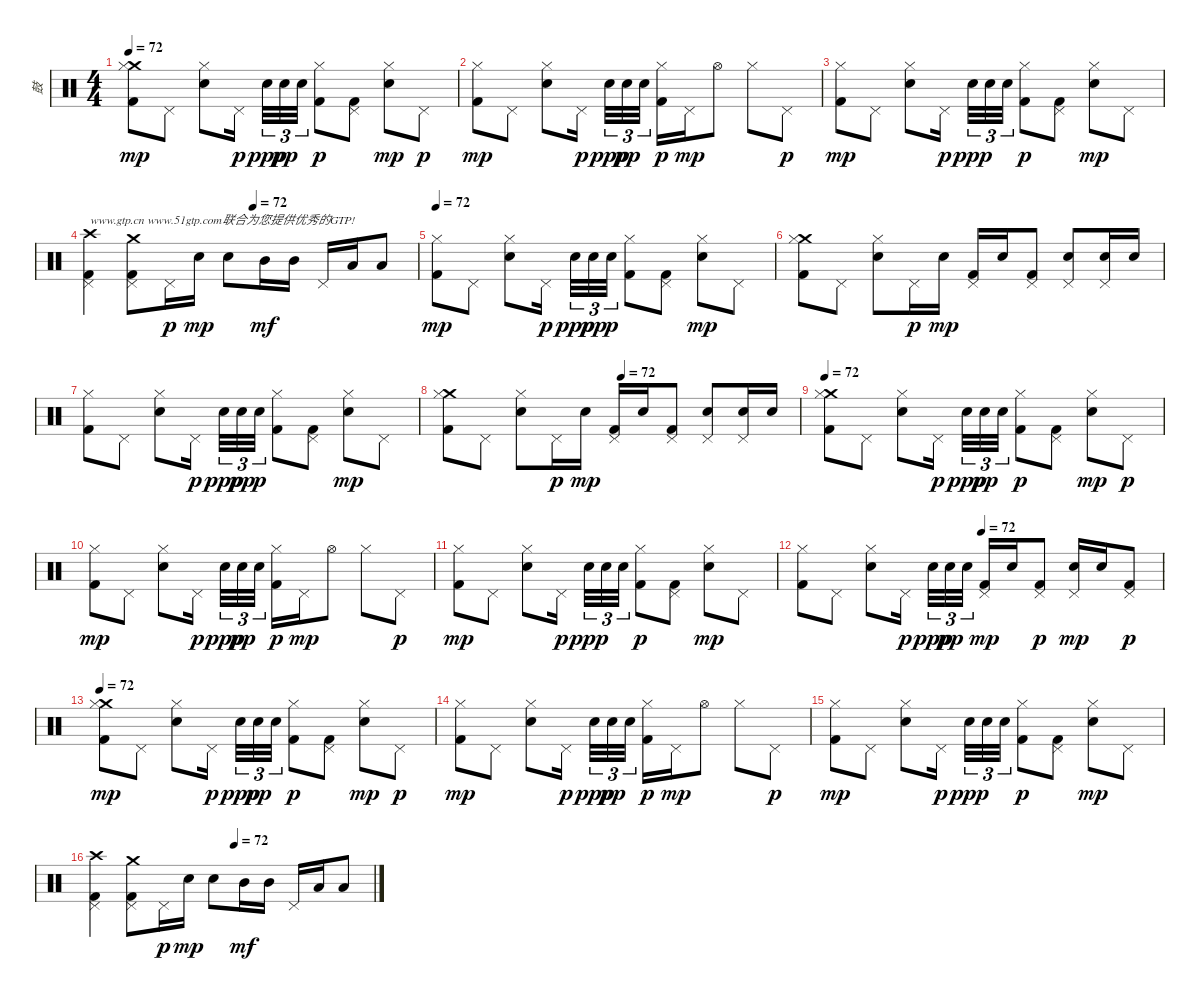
\track ("鼓" "鼓") {instrument percussion}
\staff {score}
\articulation defaults
\ts (4 4)
\tempo 72
\clef neutral
\ks c
("Crash medium (hit)" "Hi-Hat (closed)" "Kick (hit) 2").8{dy mp} "Pedal Hi-Hat (hit)".8 ("Hi-Hat (closed)" "Electric Snare (hit)").8 "Pedal Hi-Hat (hit)".16{dy p beam splitsecondary} "Electric Snare (hit)".32{tu (3 2) dy ppp} "Electric Snare (hit)".32{tu (3 2) dy pp} "Electric Snare (hit)".32{tu (3 2)} ("Hi-Hat (closed)" "Kick (hit) 2").8{dy p} ("Pedal Hi-Hat (hit)" "Kick (hit) 2").8 ("Hi-Hat (closed)" "Electric Snare (hit)").8{dy mp} "Pedal Hi-Hat (hit)".8{dy p} |
("Hi-Hat (closed)" "Kick (hit) 2").8{dy mp} "Pedal Hi-Hat (hit)".8 ("Hi-Hat (closed)" "Electric Snare (hit)").8 "Pedal Hi-Hat (hit)".16{dy p beam splitsecondary} "Electric Snare (hit)".32{tu (3 2) dy ppp} "Electric Snare (hit)".32{tu (3 2) dy pp} "Electric Snare (hit)".32{tu (3 2)} ("Hi-Hat (closed)" "Kick (hit) 2").16{dy p} "Pedal Hi-Hat (hit)".16{dy mp} "Hi-Hat (open)".8 "Hi-Hat (closed)".8 "Pedal Hi-Hat (hit)".8{dy p} |
("Hi-Hat (closed)" "Kick (hit) 2").8{dy mp} "Pedal Hi-Hat (hit)".8 ("Hi-Hat (closed)" "Electric Snare (hit)").8 "Pedal Hi-Hat (hit)".16{dy p beam splitsecondary} "Electric Snare (hit)".32{tu (3 2) dy ppp} "Electric Snare (hit)".32{tu (3 2)} "Electric Snare (hit)".32{tu (3 2)} ("Hi-Hat (closed)" "Kick (hit) 2").8{dy p} ("Pedal Hi-Hat (hit)" "Kick (hit) 2").8 ("Hi-Hat (closed)" "Electric Snare (hit)").8{dy mp} "Pedal Hi-Hat (hit)".8 |
\tempo (72 0.5)
("Crash high (hit)" "Pedal Hi-Hat (hit)" "Kick (hit) 2").4{txt "www.gtp.cn www.51gtp.com联合为您提供优秀的GTP!"} ("Crash medium (hit)" "Pedal Hi-Hat (hit)" "Kick (hit) 2").8 "Pedal Hi-Hat (hit)".16{dy p} "Electric Snare (hit)".16{dy mp} "Electric Snare (hit)".8 "Mid Tom (hit)".16{dy mf} "Mid Tom (hit)".16 "Pedal Hi-Hat (hit)".16 "Low Tom (hit)".16 "Low Tom (hit)".8 |
\tempo 72
("Hi-Hat (closed)" "Kick (hit) 2").8{dy mp} "Pedal Hi-Hat (hit)".8 ("Hi-Hat (closed)" "Electric Snare (hit)").8 "Pedal Hi-Hat (hit)".16{dy p beam splitsecondary} "Electric Snare (hit)".32{tu (3 2) dy ppp} "Electric Snare (hit)".32{tu (3 2) dy pp} "Electric Snare (hit)".32{tu (3 2) dy p} ("Hi-Hat (closed)" "Kick (hit) 2").8 ("Pedal Hi-Hat (hit)" "Kick (hit) 2").8 ("Hi-Hat (closed)" "Electric Snare (hit)").8{dy mp} "Pedal Hi-Hat (hit)".8 |
("Crash medium (hit)" "Hi-Hat (closed)" "Kick (hit) 2").8 "Pedal Hi-Hat (hit)".8 ("Hi-Hat (closed)" "Electric Snare (hit)").8 "Pedal Hi-Hat (hit)".16{dy p} "Electric Snare (hit)".16{dy mp} ("Pedal Hi-Hat (hit)" "Kick (hit) 2").16 "Electric Snare (hit)".16 ("Pedal Hi-Hat (hit)" "Kick (hit) 2").8 ("Pedal Hi-Hat (hit)" "Electric Snare (hit)").8 ("Pedal Hi-Hat (hit)" "Electric Snare (hit)").16 "Electric Snare (hit)".16 |
("Hi-Hat (closed)" "Kick (hit) 2").8 "Pedal Hi-Hat (hit)".8 ("Hi-Hat (closed)" "Electric Snare (hit)").8 "Pedal Hi-Hat (hit)".16{dy p beam splitsecondary} "Electric Snare (hit)".32{tu (3 2) dy ppp} "Electric Snare (hit)".32{tu (3 2) dy pp} "Electric Snare (hit)".32{tu (3 2) dy p} ("Hi-Hat (closed)" "Kick (hit) 2").8 ("Pedal Hi-Hat (hit)" "Kick (hit) 2").8 ("Hi-Hat (closed)" "Electric Snare (hit)").8{dy mp} "Pedal Hi-Hat (hit)".8 |
\tempo (72 0.5)
("Crash medium (hit)" "Hi-Hat (closed)" "Kick (hit) 2").8 "Pedal Hi-Hat (hit)".8 ("Hi-Hat (closed)" "Electric Snare (hit)").8 "Pedal Hi-Hat (hit)".16{dy p} "Electric Snare (hit)".16{dy mp} ("Pedal Hi-Hat (hit)" "Kick (hit) 2").16 "Electric Snare (hit)".16 ("Pedal Hi-Hat (hit)" "Kick (hit) 2").8 ("Pedal Hi-Hat (hit)" "Electric Snare (hit)").8 ("Pedal Hi-Hat (hit)" "Electric Snare (hit)").16 "Electric Snare (hit)".16 |
\tempo 72
("Crash medium (hit)" "Hi-Hat (closed)" "Kick (hit) 2").8 "Pedal Hi-Hat (hit)".8 ("Hi-Hat (closed)" "Electric Snare (hit)").8 "Pedal Hi-Hat (hit)".16{dy p beam splitsecondary} "Electric Snare (hit)".32{tu (3 2) dy ppp} "Electric Snare (hit)".32{tu (3 2) dy pp} "Electric Snare (hit)".32{tu (3 2)} ("Hi-Hat (closed)" "Kick (hit) 2").8{dy p} ("Pedal Hi-Hat (hit)" "Kick (hit) 2").8 ("Hi-Hat (closed)" "Electric Snare (hit)").8{dy mp} "Pedal Hi-Hat (hit)".8{dy p} |
("Hi-Hat (closed)" "Kick (hit) 2").8{dy mp} "Pedal Hi-Hat (hit)".8 ("Hi-Hat (closed)" "Electric Snare (hit)").8 "Pedal Hi-Hat (hit)".16{dy p beam splitsecondary} "Electric Snare (hit)".32{tu (3 2) dy ppp} "Electric Snare (hit)".32{tu (3 2) dy pp} "Electric Snare (hit)".32{tu (3 2)} ("Hi-Hat (closed)" "Kick (hit) 2").16{dy p} "Pedal Hi-Hat (hit)".16{dy mp} "Hi-Hat (open)".8 "Hi-Hat (closed)".8 "Pedal Hi-Hat (hit)".8{dy p} |
("Hi-Hat (closed)" "Kick (hit) 2").8{dy mp} "Pedal Hi-Hat (hit)".8 ("Hi-Hat (closed)" "Electric Snare (hit)").8 "Pedal Hi-Hat (hit)".16{dy p beam splitsecondary} "Electric Snare (hit)".32{tu (3 2) dy ppp} "Electric Snare (hit)".32{tu (3 2)} "Electric Snare (hit)".32{tu (3 2)} ("Hi-Hat (closed)" "Kick (hit) 2").8{dy p} ("Pedal Hi-Hat (hit)" "Kick (hit) 2").8 ("Hi-Hat (closed)" "Electric Snare (hit)").8{dy mp} "Pedal Hi-Hat (hit)".8 |
\tempo (72 0.5)
("Hi-Hat (closed)" "Kick (hit) 2").8 "Pedal Hi-Hat (hit)".8 ("Hi-Hat (closed)" "Electric Snare (hit)").8 "Pedal Hi-Hat (hit)".16{dy p beam splitsecondary} "Electric Snare (hit)".32{tu (3 2) dy ppp} "Electric Snare (hit)".32{tu (3 2) dy pp} "Electric Snare (hit)".32{tu (3 2)} ("Pedal Hi-Hat (hit)" "Kick (hit) 2").16{dy mp} "Electric Snare (hit)".16 ("Pedal Hi-Hat (hit)" "Kick (hit) 2").8{dy p} ("Pedal Hi-Hat (hit)" "Electric Snare (hit)").16{dy mp} "Electric Snare (hit)".16 ("Pedal Hi-Hat (hit)" "Kick (hit) 2").8{dy p} |
\tempo 72
("Crash medium (hit)" "Hi-Hat (closed)" "Kick (hit) 2").8{dy mp} "Pedal Hi-Hat (hit)".8 ("Hi-Hat (closed)" "Electric Snare (hit)").8 "Pedal Hi-Hat (hit)".16{dy p beam splitsecondary} "Electric Snare (hit)".32{tu (3 2) dy ppp} "Electric Snare (hit)".32{tu (3 2) dy pp} "Electric Snare (hit)".32{tu (3 2)} ("Hi-Hat (closed)" "Kick (hit) 2").8{dy p} ("Pedal Hi-Hat (hit)" "Kick (hit) 2").8 ("Hi-Hat (closed)" "Electric Snare (hit)").8{dy mp} "Pedal Hi-Hat (hit)".8{dy p} |
("Hi-Hat (closed)" "Kick (hit) 2").8{dy mp} "Pedal Hi-Hat (hit)".8 ("Hi-Hat (closed)" "Electric Snare (hit)").8 "Pedal Hi-Hat (hit)".16{dy p beam splitsecondary} "Electric Snare (hit)".32{tu (3 2) dy ppp} "Electric Snare (hit)".32{tu (3 2) dy pp} "Electric Snare (hit)".32{tu (3 2)} ("Hi-Hat (closed)" "Kick (hit) 2").16{dy p} "Pedal Hi-Hat (hit)".16{dy mp} "Hi-Hat (open)".8 "Hi-Hat (closed)".8 "Pedal Hi-Hat (hit)".8{dy p} |
("Hi-Hat (closed)" "Kick (hit) 2").8{dy mp} "Pedal Hi-Hat (hit)".8 ("Hi-Hat (closed)" "Electric Snare (hit)").8 "Pedal Hi-Hat (hit)".16{dy p beam splitsecondary} "Electric Snare (hit)".32{tu (3 2) dy ppp} "Electric Snare (hit)".32{tu (3 2)} "Electric Snare (hit)".32{tu (3 2)} ("Hi-Hat (closed)" "Kick (hit) 2").8{dy p} ("Pedal Hi-Hat (hit)" "Kick (hit) 2").8 ("Hi-Hat (closed)" "Electric Snare (hit)").8{dy mp} "Pedal Hi-Hat (hit)".8 |
\tempo (72 0.5)
("Crash high (hit)" "Pedal Hi-Hat (hit)" "Kick (hit) 2").4 ("Crash medium (hit)" "Pedal Hi-Hat (hit)" "Kick (hit) 2").8 "Pedal Hi-Hat (hit)".16{dy p} "Electric Snare (hit)".16{dy mp} "Electric Snare (hit)".8 "Mid Tom (hit)".16{dy mf} "Mid Tom (hit)".16 "Pedal Hi-Hat (hit)".16 "Low Tom (hit)".16 "Low Tom (hit)".8
